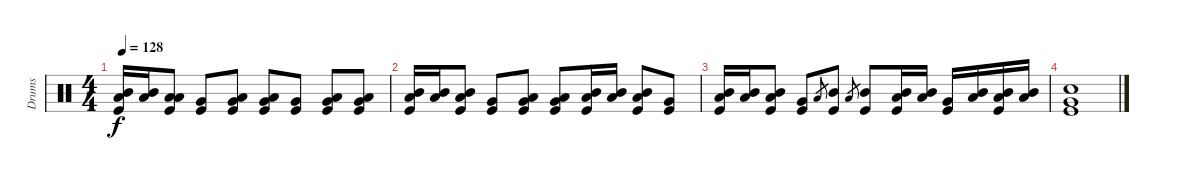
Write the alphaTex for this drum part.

\track ("Drums" "Drums") {instrument percussion}
\staff {score}
\articulation defaults
\ts (4 4)
\tempo 128
\clef neutral
\ks c
("Mid Tom (hit)" "Low Tom (hit)" "Kick (hit)").16{dy f} ("Mid Tom (hit)" "Low Tom (hit)").16 ("Low Tom (hit)" "Low Tom (hit)" "Kick (hit)").8 ("Very Low Tom (hit)" "Kick (hit)").8 ("Low Tom (hit)" "Very Low Tom (hit)" "Kick (hit)").8 ("Low Tom (hit)" "Very Low Tom (hit)" "Kick (hit)").8 ("Very Low Tom (hit)" "Kick (hit)").8 ("Low Tom (hit)" "Very Low Tom (hit)" "Kick (hit)").8 ("Low Tom (hit)" "Very Low Tom (hit)" "Kick (hit)").8 |
("Mid Tom (hit)" "Low Tom (hit)" "Kick (hit)").16 ("Mid Tom (hit)" "Low Tom (hit)").16 ("Mid Tom (hit)" "Low Tom (hit)" "Kick (hit)").8 ("Very Low Tom (hit)" "Kick (hit)").8 ("Low Tom (hit)" "Very Low Tom (hit)" "Kick (hit)").8 ("Low Tom (hit)" "Very Low Tom (hit)" "Kick (hit)").8 ("Mid Tom (hit)" "Low Tom (hit)" "Kick (hit)").16 ("Mid Tom (hit)" "Low Tom (hit)").16 ("Mid Tom (hit)" "Low Tom (hit)" "Kick (hit)").8 ("Very Low Tom (hit)" "Kick (hit)").8 |
("Mid Tom (hit)" "Low Tom (hit)" "Kick (hit)").16 ("Mid Tom (hit)" "Low Tom (hit)").16 ("Mid Tom (hit)" "Low Tom (hit)" "Kick (hit)").8 ("Very Low Tom (hit)" "Kick (hit)").8 "Low Tom (hit)".8{gr} ("Mid Tom (hit)" "Kick (hit)").8 "Low Tom (hit)".8{gr} ("Mid Tom (hit)" "Kick (hit)").8 ("Mid Tom (hit)" "Low Tom (hit)" "Kick (hit)").16 ("Mid Tom (hit)" "Low Tom (hit)").16 ("Very Low Tom (hit)" "Kick (hit)").16 ("Mid Tom (hit)" "Low Tom (hit)").16 ("Mid Tom (hit)" "Low Tom (hit)" "Kick (hit)").16 ("Mid Tom (hit)" "Low Tom (hit)").16 |
("Snare (hit) 2" "Very Low Tom (hit)" "Kick (hit)").1
